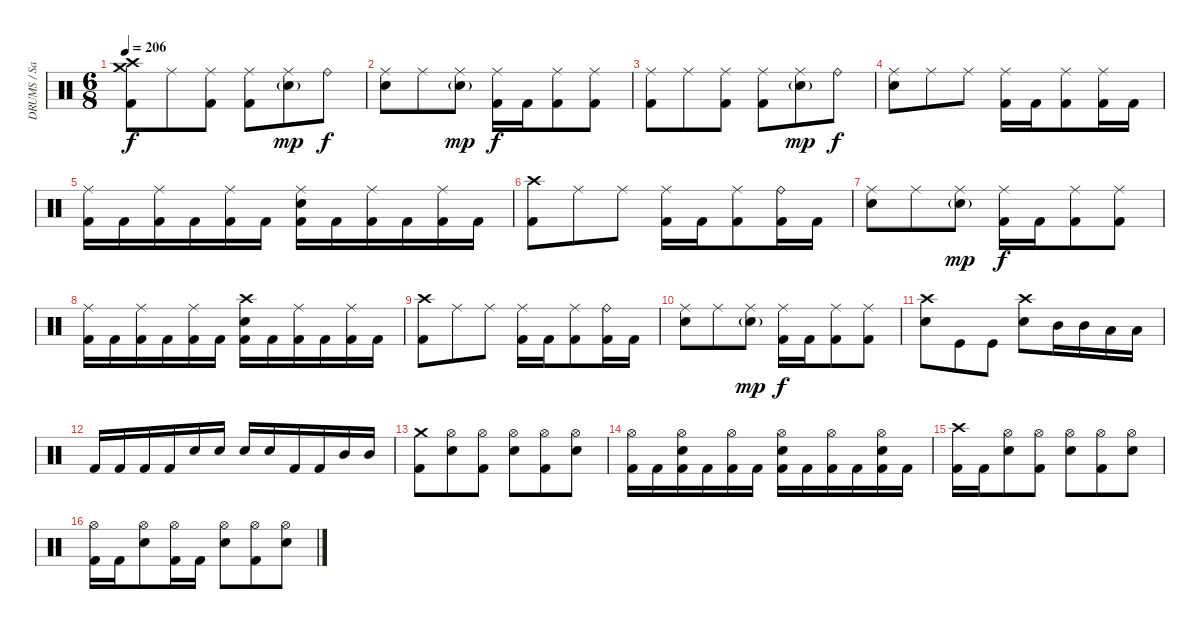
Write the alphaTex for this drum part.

\track ("DRUMS / Sasha" "DRUMS / Sa") {instrument percussion}
\staff {score}
\articulation defaults
\ts (6 8)
\tempo 206
\clef neutral
\ks c
("Crash high (hit)" "Crash medium (hit)" "Kick (hit) 2").8{dy f} "Ride (middle)".8 ("Ride (middle)" "Kick (hit) 2").8 ("Ride (middle)" "Kick (hit) 2").8 ("Ride (middle)" "Electric Snare (hit)"{g}).8{dy mp} "Ride (bell)".8{dy f} |
("Ride (middle)" "Electric Snare (hit)").8 "Ride (middle)".8 ("Ride (middle)" "Electric Snare (hit)"{g}).8{dy mp} ("Ride (middle)" "Kick (hit) 2").16{dy f} "Kick (hit) 2".16 ("Ride (middle)" "Kick (hit) 2").8 ("Ride (middle)" "Kick (hit) 2").8 |
("Ride (middle)" "Kick (hit) 2").8 "Ride (middle)".8 ("Ride (middle)" "Kick (hit) 2").8 ("Ride (middle)" "Kick (hit) 2").8 ("Ride (middle)" "Electric Snare (hit)"{g}).8{dy mp} "Ride (bell)".8{dy f} |
("Ride (middle)" "Electric Snare (hit)").8 "Ride (middle)".8 "Ride (middle)".8 ("Ride (middle)" "Kick (hit) 2").16 "Kick (hit) 2".16 ("Ride (middle)" "Kick (hit) 2").8 ("Ride (middle)" "Kick (hit) 2").16 "Kick (hit) 2".16 |
("Ride (middle)" "Kick (hit) 2").16 "Kick (hit) 2".16 ("Ride (middle)" "Kick (hit) 2").16 "Kick (hit) 2".16 ("Ride (middle)" "Kick (hit) 2").16 "Kick (hit) 2".16 ("Ride (middle)" "Electric Snare (hit)" "Kick (hit) 2").16 "Kick (hit) 2".16 ("Ride (middle)" "Kick (hit) 2").16 "Kick (hit) 2".16 ("Ride (middle)" "Kick (hit) 2").16 "Kick (hit) 2".16 |
("Crash high (hit)" "Kick (hit) 2").8 "Ride (middle)".8 "Ride (middle)".8 ("Ride (middle)" "Kick (hit) 2").16 "Kick (hit) 2".16 ("Ride (middle)" "Kick (hit) 2").8 ("Ride (bell)" "Kick (hit) 2").16 "Kick (hit) 2".16 |
("Ride (middle)" "Electric Snare (hit)").8 "Ride (middle)".8 ("Ride (middle)" "Electric Snare (hit)"{g}).8{dy mp} ("Ride (middle)" "Kick (hit) 2").16{dy f} "Kick (hit) 2".16 ("Ride (middle)" "Kick (hit) 2").8 ("Ride (middle)" "Kick (hit) 2").8 |
("Ride (middle)" "Kick (hit) 2").16 "Kick (hit) 2".16 ("Ride (middle)" "Kick (hit) 2").16 "Kick (hit) 2".16 ("Ride (middle)" "Kick (hit) 2").16 "Kick (hit) 2".16 ("Crash high (hit)" "Electric Snare (hit)" "Kick (hit) 2").16 "Kick (hit) 2".16 ("Ride (middle)" "Kick (hit) 2").16 "Kick (hit) 2".16 ("Ride (middle)" "Kick (hit) 2").16 "Kick (hit) 2".16 |
("Crash high (hit)" "Kick (hit) 2").8 "Ride (middle)".8 "Ride (middle)".8 ("Ride (middle)" "Kick (hit) 2").16 "Kick (hit) 2".16 ("Ride (middle)" "Kick (hit) 2").8 ("Ride (bell)" "Kick (hit) 2").16 "Kick (hit) 2".16 |
("Ride (middle)" "Electric Snare (hit)").8 "Ride (middle)".8 ("Ride (middle)" "Electric Snare (hit)"{g}).8{dy mp} ("Ride (middle)" "Kick (hit) 2").16{dy f} "Kick (hit) 2".16 ("Ride (middle)" "Kick (hit) 2").8 ("Ride (middle)" "Kick (hit) 2").8 |
("Snare (hit) 2" "Crash high (hit)").8 "Kick (hit)".8 "Kick (hit)".8 ("Snare (hit) 2" "Crash high (hit)").8 "Mid Tom (hit)".16 "Mid Tom (hit)".16 "Low Tom (hit)".16 "Low Tom (hit)".16 |
"Kick (hit) 2".16 "Kick (hit) 2".16 "Kick (hit) 2".16 "Kick (hit) 2".16 "Electric Snare (hit)".16 "Electric Snare (hit)".16 "Electric Snare (hit)".16 "Electric Snare (hit)".16 "Kick (hit) 2".16 "Kick (hit) 2".16 "Mid Tom (hit)".16 "Mid Tom (hit)".16 |
("Crash medium (hit)" "Kick (hit) 2").8 ("Hi-Hat (open)" "Electric Snare (hit)").8 ("Hi-Hat (open)" "Kick (hit) 2").8 ("Hi-Hat (open)" "Electric Snare (hit)").8 ("Hi-Hat (open)" "Kick (hit) 2").8 ("Hi-Hat (open)" "Electric Snare (hit)").8 |
("Hi-Hat (open)" "Kick (hit) 2").16 "Kick (hit) 2".16 ("Hi-Hat (open)" "Electric Snare (hit)" "Kick (hit) 2").16 "Kick (hit) 2".16 ("Hi-Hat (open)" "Kick (hit) 2").16 "Kick (hit) 2".16 ("Hi-Hat (open)" "Electric Snare (hit)" "Kick (hit) 2").16 "Kick (hit) 2".16 ("Hi-Hat (open)" "Kick (hit) 2").16 "Kick (hit) 2".16 ("Hi-Hat (open)" "Electric Snare (hit)" "Kick (hit) 2").16 "Kick (hit) 2".16 |
("Crash high (hit)" "Kick (hit) 2").16 "Kick (hit) 2".16 ("Hi-Hat (open)" "Electric Snare (hit)").8 ("Hi-Hat (open)" "Kick (hit) 2").8 ("Hi-Hat (open)" "Electric Snare (hit)").8 ("Hi-Hat (open)" "Kick (hit) 2").8 ("Hi-Hat (open)" "Electric Snare (hit)").8 |
("Hi-Hat (open)" "Kick (hit) 2").16 "Kick (hit) 2".16 ("Hi-Hat (open)" "Electric Snare (hit)").8 ("Hi-Hat (open)" "Kick (hit) 2").16 "Kick (hit) 2".16 ("Hi-Hat (open)" "Electric Snare (hit)").8 ("Hi-Hat (open)" "Kick (hit) 2").8 ("Hi-Hat (open)" "Electric Snare (hit)").8
